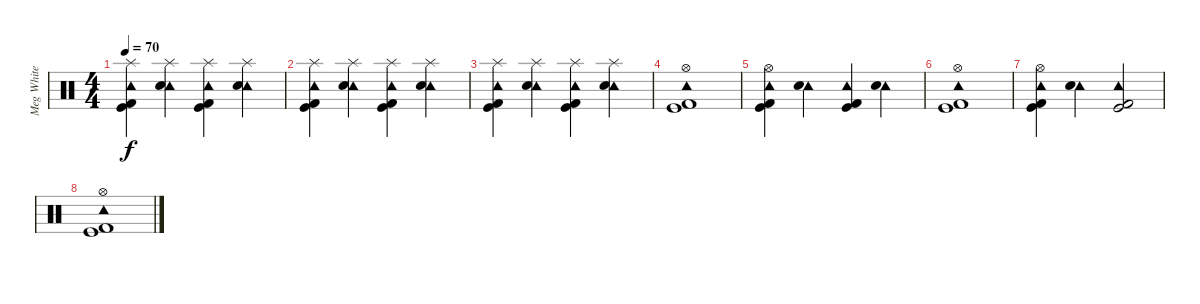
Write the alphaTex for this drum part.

\track ("Meg White (Drums)" "Meg White ") {instrument percussion}
\staff {score}
\articulation defaults
\ts (4 4)
\tempo 70
\clef neutral
\ks c
("Tambourine (hit)" "Kick (hit)" "Kick (hit) 2" "Splash (hit)").4{dy f} ("Tambourine (hit)" "Electric Snare (hit)" "Splash (hit)").4 ("Tambourine (hit)" "Kick (hit)" "Kick (hit) 2" "Splash (hit)").4 ("Tambourine (hit)" "Electric Snare (hit)" "Splash (hit)").4 |
("Tambourine (hit)" "Kick (hit)" "Kick (hit) 2" "Splash (hit)").4 ("Tambourine (hit)" "Electric Snare (hit)" "Splash (hit)").4 ("Tambourine (hit)" "Kick (hit)" "Kick (hit) 2" "Splash (hit)").4 ("Tambourine (hit)" "Electric Snare (hit)" "Splash (hit)").4 |
("Tambourine (hit)" "Kick (hit)" "Kick (hit) 2" "Splash (hit)").4 ("Tambourine (hit)" "Electric Snare (hit)" "Splash (hit)").4 ("Tambourine (hit)" "Kick (hit)" "Kick (hit) 2" "Splash (hit)").4 ("Tambourine (hit)" "Electric Snare (hit)" "Splash (hit)").4 |
("Tambourine (hit)" "Kick (hit)" "Kick (hit) 2" "Hi-Hat (open)").1 |
("Tambourine (hit)" "Kick (hit)" "Kick (hit) 2" "Hi-Hat (open)").4 ("Tambourine (hit)" "Electric Snare (hit)").4 ("Tambourine (hit)" "Kick (hit)" "Kick (hit) 2").4 ("Tambourine (hit)" "Electric Snare (hit)").4 |
("Tambourine (hit)" "Kick (hit)" "Kick (hit) 2" "Hi-Hat (open)").1 |
("Tambourine (hit)" "Kick (hit)" "Kick (hit) 2" "Hi-Hat (open)").4 ("Tambourine (hit)" "Electric Snare (hit)").4 ("Tambourine (hit)" "Kick (hit)" "Kick (hit) 2").2 |
("Tambourine (hit)" "Kick (hit)" "Kick (hit) 2" "Hi-Hat (open)").1
